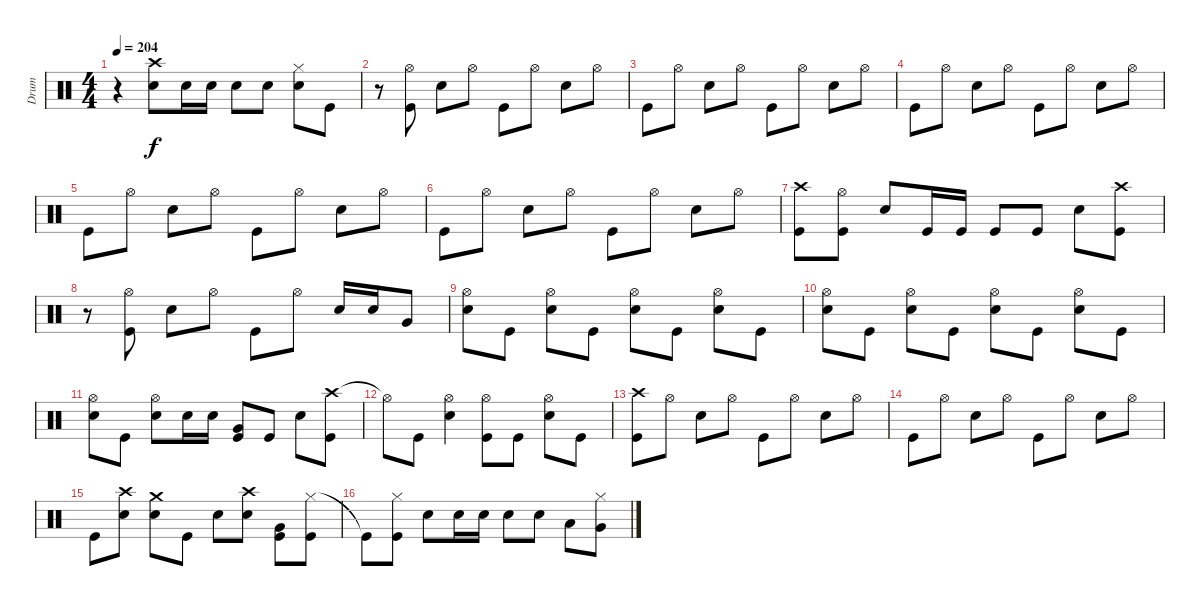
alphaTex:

\track ("Drum" "Drum") {instrument percussion}
\staff {score}
\articulation defaults
\ts (4 4)
\tempo 204
\clef neutral
\ks c
r.4{dy f} ("Crash high (hit)" "Snare (hit) 2").8 "Snare (hit) 2".16 "Snare (hit) 2".16 "Snare (hit) 2".8 "Snare (hit) 2".8 ("Hi-Hat (closed)" "Snare (hit) 2").8 "Kick (hit)".8 |
r.8 ("Hi-Hat (open)" "Kick (hit)").8 "Snare (hit) 2".8 "Hi-Hat (open)".8 "Kick (hit)".8 "Hi-Hat (open)".8 "Snare (hit) 2".8 "Hi-Hat (open)".8 |
"Kick (hit)".8 "Hi-Hat (open)".8 "Snare (hit) 2".8 "Hi-Hat (open)".8 "Kick (hit)".8 "Hi-Hat (open)".8 "Snare (hit) 2".8 "Hi-Hat (open)".8 |
"Kick (hit)".8 "Hi-Hat (open)".8 "Snare (hit) 2".8 "Hi-Hat (open)".8 "Kick (hit)".8 "Hi-Hat (open)".8 "Snare (hit) 2".8 "Hi-Hat (open)".8 |
"Kick (hit)".8 "Hi-Hat (open)".8 "Snare (hit) 2".8 "Hi-Hat (open)".8 "Kick (hit)".8 "Hi-Hat (open)".8 "Snare (hit) 2".8 "Hi-Hat (open)".8 |
"Kick (hit)".8 "Hi-Hat (open)".8 "Snare (hit) 2".8 "Hi-Hat (open)".8 "Kick (hit)".8 "Hi-Hat (open)".8 "Snare (hit) 2".8 "Hi-Hat (open)".8 |
("Crash high (hit)" "Kick (hit)").8 ("Hi-Hat (open)" "Kick (hit)").8 "Snare (hit) 2".8 "Kick (hit)".16 "Kick (hit)".16 "Kick (hit)".8 "Kick (hit)".8 "Snare (hit) 2".8 ("Crash high (hit)" "Kick (hit)").8 |
r.8 ("Hi-Hat (open)" "Kick (hit)").8 "Snare (hit) 2".8 "Hi-Hat (open)".8 "Kick (hit)".8 "Hi-Hat (open)".8 "Snare (hit) 2".16 "Snare (hit) 2".16 "Very Low Tom (hit)".8 |
("Hi-Hat (open)" "Snare (hit) 2").8 "Kick (hit)".8 ("Hi-Hat (open)" "Snare (hit) 2").8 "Kick (hit)".8 ("Hi-Hat (open)" "Snare (hit) 2").8 "Kick (hit)".8 ("Hi-Hat (open)" "Snare (hit) 2").8 "Kick (hit)".8 |
("Hi-Hat (open)" "Snare (hit) 2").8 "Kick (hit)".8 ("Hi-Hat (open)" "Snare (hit) 2").8 "Kick (hit)".8 ("Hi-Hat (open)" "Snare (hit) 2").8 "Kick (hit)".8 ("Hi-Hat (open)" "Snare (hit) 2").8 "Kick (hit)".8 |
("Hi-Hat (open)" "Snare (hit) 2").8 "Kick (hit)".8 ("Hi-Hat (open)" "Snare (hit) 2").8 "Snare (hit) 2".16 "Snare (hit) 2".16 ("Very Low Tom (hit)" "Kick (hit)").8 "Kick (hit)".8 "Snare (hit) 2".8 ("Crash high (hit)" "Kick (hit)").8 |
"Hi-Hat (open)"{t}.8 "Kick (hit)".8 ("Hi-Hat (open)" "Snare (hit) 2").4 ("Hi-Hat (open)" "Kick (hit)").8 "Kick (hit)".8 ("Hi-Hat (open)" "Snare (hit) 2").8 "Kick (hit)".8 |
("Crash high (hit)" "Kick (hit)").8 "Hi-Hat (open)".8 "Snare (hit) 2".8 "Hi-Hat (open)".8 "Kick (hit)".8 "Hi-Hat (open)".8 "Snare (hit) 2".8 "Hi-Hat (open)".8 |
"Kick (hit)".8 "Hi-Hat (open)".8 "Snare (hit) 2".8 "Hi-Hat (open)".8 "Kick (hit)".8 "Hi-Hat (open)".8 "Snare (hit) 2".8 "Hi-Hat (open)".8 |
"Kick (hit)".8 ("Crash high (hit)" "Snare (hit) 2").8 ("Crash medium (hit)" "Snare (hit) 2").8 "Kick (hit)".8 "Snare (hit) 2".8 ("Crash high (hit)" "Snare (hit) 2").8 ("Very Low Tom (hit)" "Kick (hit)").8 ("Hi-Hat (closed)" "Kick (hit)").8 |
"Kick (hit)"{t}.8 ("Hi-Hat (closed)" "Kick (hit)").8 "Snare (hit) 2".8 "Snare (hit) 2".16 "Snare (hit) 2".16 "Snare (hit) 2".8 "Snare (hit) 2".8 "Low Tom (hit)".8 ("Hi-Hat (closed)" "Very Low Tom (hit)").8
